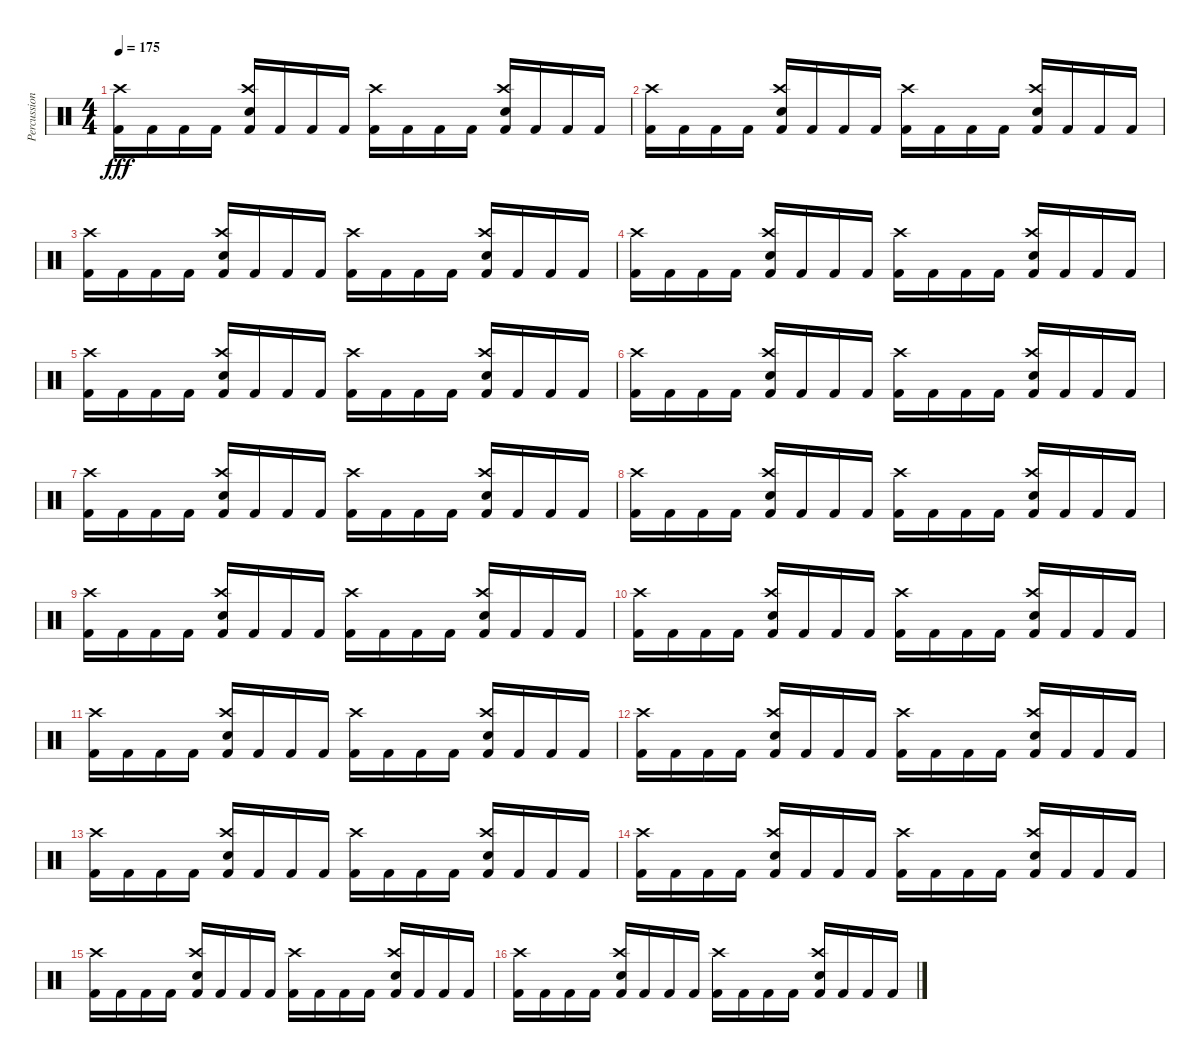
\track ("Percussion" "Percussion") {instrument percussion}
\staff {score}
\articulation defaults
\ts (4 4)
\tempo 175
\clef neutral
\ks c
("Kick (hit) 2" "Crash high (hit)").16{dy fff} "Kick (hit) 2".16 "Kick (hit) 2".16 "Kick (hit) 2".16 ("Kick (hit) 2" "Electric Snare (hit)" "Crash high (hit)").16 "Kick (hit) 2".16 "Kick (hit) 2".16 "Kick (hit) 2".16 ("Kick (hit) 2" "Crash high (hit)").16 "Kick (hit) 2".16 "Kick (hit) 2".16 "Kick (hit) 2".16 ("Kick (hit) 2" "Electric Snare (hit)" "Crash high (hit)").16 "Kick (hit) 2".16 "Kick (hit) 2".16 "Kick (hit) 2".16 |
("Kick (hit) 2" "Crash high (hit)").16 "Kick (hit) 2".16 "Kick (hit) 2".16 "Kick (hit) 2".16 ("Kick (hit) 2" "Electric Snare (hit)" "Crash high (hit)").16 "Kick (hit) 2".16 "Kick (hit) 2".16 "Kick (hit) 2".16 ("Kick (hit) 2" "Crash high (hit)").16 "Kick (hit) 2".16 "Kick (hit) 2".16 "Kick (hit) 2".16 ("Kick (hit) 2" "Electric Snare (hit)" "Crash high (hit)").16 "Kick (hit) 2".16 "Kick (hit) 2".16 "Kick (hit) 2".16 |
("Kick (hit) 2" "Crash high (hit)").16 "Kick (hit) 2".16 "Kick (hit) 2".16 "Kick (hit) 2".16 ("Kick (hit) 2" "Electric Snare (hit)" "Crash high (hit)").16 "Kick (hit) 2".16 "Kick (hit) 2".16 "Kick (hit) 2".16 ("Kick (hit) 2" "Crash high (hit)").16 "Kick (hit) 2".16 "Kick (hit) 2".16 "Kick (hit) 2".16 ("Kick (hit) 2" "Electric Snare (hit)" "Crash high (hit)").16 "Kick (hit) 2".16 "Kick (hit) 2".16 "Kick (hit) 2".16 |
("Kick (hit) 2" "Crash high (hit)").16 "Kick (hit) 2".16 "Kick (hit) 2".16 "Kick (hit) 2".16 ("Kick (hit) 2" "Electric Snare (hit)" "Crash high (hit)").16 "Kick (hit) 2".16 "Kick (hit) 2".16 "Kick (hit) 2".16 ("Kick (hit) 2" "Crash high (hit)").16 "Kick (hit) 2".16 "Kick (hit) 2".16 "Kick (hit) 2".16 ("Kick (hit) 2" "Electric Snare (hit)" "Crash high (hit)").16 "Kick (hit) 2".16 "Kick (hit) 2".16 "Kick (hit) 2".16 |
("Kick (hit) 2" "Crash high (hit)").16 "Kick (hit) 2".16 "Kick (hit) 2".16 "Kick (hit) 2".16 ("Kick (hit) 2" "Electric Snare (hit)" "Crash high (hit)").16 "Kick (hit) 2".16 "Kick (hit) 2".16 "Kick (hit) 2".16 ("Kick (hit) 2" "Crash high (hit)").16 "Kick (hit) 2".16 "Kick (hit) 2".16 "Kick (hit) 2".16 ("Kick (hit) 2" "Electric Snare (hit)" "Crash high (hit)").16 "Kick (hit) 2".16 "Kick (hit) 2".16 "Kick (hit) 2".16 |
("Kick (hit) 2" "Crash high (hit)").16 "Kick (hit) 2".16 "Kick (hit) 2".16 "Kick (hit) 2".16 ("Kick (hit) 2" "Electric Snare (hit)" "Crash high (hit)").16 "Kick (hit) 2".16 "Kick (hit) 2".16 "Kick (hit) 2".16 ("Kick (hit) 2" "Crash high (hit)").16 "Kick (hit) 2".16 "Kick (hit) 2".16 "Kick (hit) 2".16 ("Kick (hit) 2" "Electric Snare (hit)" "Crash high (hit)").16 "Kick (hit) 2".16 "Kick (hit) 2".16 "Kick (hit) 2".16 |
("Kick (hit) 2" "Crash high (hit)").16 "Kick (hit) 2".16 "Kick (hit) 2".16 "Kick (hit) 2".16 ("Kick (hit) 2" "Electric Snare (hit)" "Crash high (hit)").16 "Kick (hit) 2".16 "Kick (hit) 2".16 "Kick (hit) 2".16 ("Kick (hit) 2" "Crash high (hit)").16 "Kick (hit) 2".16 "Kick (hit) 2".16 "Kick (hit) 2".16 ("Kick (hit) 2" "Electric Snare (hit)" "Crash high (hit)").16 "Kick (hit) 2".16 "Kick (hit) 2".16 "Kick (hit) 2".16 |
("Kick (hit) 2" "Crash high (hit)").16 "Kick (hit) 2".16 "Kick (hit) 2".16 "Kick (hit) 2".16 ("Kick (hit) 2" "Electric Snare (hit)" "Crash high (hit)").16 "Kick (hit) 2".16 "Kick (hit) 2".16 "Kick (hit) 2".16 ("Kick (hit) 2" "Crash high (hit)").16 "Kick (hit) 2".16 "Kick (hit) 2".16 "Kick (hit) 2".16 ("Kick (hit) 2" "Electric Snare (hit)" "Crash high (hit)").16 "Kick (hit) 2".16 "Kick (hit) 2".16 "Kick (hit) 2".16 |
("Kick (hit) 2" "Crash high (hit)").16 "Kick (hit) 2".16 "Kick (hit) 2".16 "Kick (hit) 2".16 ("Kick (hit) 2" "Electric Snare (hit)" "Crash high (hit)").16 "Kick (hit) 2".16 "Kick (hit) 2".16 "Kick (hit) 2".16 ("Kick (hit) 2" "Crash high (hit)").16 "Kick (hit) 2".16 "Kick (hit) 2".16 "Kick (hit) 2".16 ("Kick (hit) 2" "Electric Snare (hit)" "Crash high (hit)").16 "Kick (hit) 2".16 "Kick (hit) 2".16 "Kick (hit) 2".16 |
("Kick (hit) 2" "Crash high (hit)").16 "Kick (hit) 2".16 "Kick (hit) 2".16 "Kick (hit) 2".16 ("Kick (hit) 2" "Electric Snare (hit)" "Crash high (hit)").16 "Kick (hit) 2".16 "Kick (hit) 2".16 "Kick (hit) 2".16 ("Kick (hit) 2" "Crash high (hit)").16 "Kick (hit) 2".16 "Kick (hit) 2".16 "Kick (hit) 2".16 ("Kick (hit) 2" "Electric Snare (hit)" "Crash high (hit)").16 "Kick (hit) 2".16 "Kick (hit) 2".16 "Kick (hit) 2".16 |
("Kick (hit) 2" "Crash high (hit)").16 "Kick (hit) 2".16 "Kick (hit) 2".16 "Kick (hit) 2".16 ("Kick (hit) 2" "Electric Snare (hit)" "Crash high (hit)").16 "Kick (hit) 2".16 "Kick (hit) 2".16 "Kick (hit) 2".16 ("Kick (hit) 2" "Crash high (hit)").16 "Kick (hit) 2".16 "Kick (hit) 2".16 "Kick (hit) 2".16 ("Kick (hit) 2" "Electric Snare (hit)" "Crash high (hit)").16 "Kick (hit) 2".16 "Kick (hit) 2".16 "Kick (hit) 2".16 |
("Kick (hit) 2" "Crash high (hit)").16 "Kick (hit) 2".16 "Kick (hit) 2".16 "Kick (hit) 2".16 ("Kick (hit) 2" "Electric Snare (hit)" "Crash high (hit)").16 "Kick (hit) 2".16 "Kick (hit) 2".16 "Kick (hit) 2".16 ("Kick (hit) 2" "Crash high (hit)").16 "Kick (hit) 2".16 "Kick (hit) 2".16 "Kick (hit) 2".16 ("Kick (hit) 2" "Electric Snare (hit)" "Crash high (hit)").16 "Kick (hit) 2".16 "Kick (hit) 2".16 "Kick (hit) 2".16 |
("Kick (hit) 2" "Crash high (hit)").16 "Kick (hit) 2".16 "Kick (hit) 2".16 "Kick (hit) 2".16 ("Kick (hit) 2" "Electric Snare (hit)" "Crash high (hit)").16 "Kick (hit) 2".16 "Kick (hit) 2".16 "Kick (hit) 2".16 ("Kick (hit) 2" "Crash high (hit)").16 "Kick (hit) 2".16 "Kick (hit) 2".16 "Kick (hit) 2".16 ("Kick (hit) 2" "Electric Snare (hit)" "Crash high (hit)").16 "Kick (hit) 2".16 "Kick (hit) 2".16 "Kick (hit) 2".16 |
("Kick (hit) 2" "Crash high (hit)").16 "Kick (hit) 2".16 "Kick (hit) 2".16 "Kick (hit) 2".16 ("Kick (hit) 2" "Electric Snare (hit)" "Crash high (hit)").16 "Kick (hit) 2".16 "Kick (hit) 2".16 "Kick (hit) 2".16 ("Kick (hit) 2" "Crash high (hit)").16 "Kick (hit) 2".16 "Kick (hit) 2".16 "Kick (hit) 2".16 ("Kick (hit) 2" "Electric Snare (hit)" "Crash high (hit)").16 "Kick (hit) 2".16 "Kick (hit) 2".16 "Kick (hit) 2".16 |
("Kick (hit) 2" "Crash high (hit)").16 "Kick (hit) 2".16 "Kick (hit) 2".16 "Kick (hit) 2".16 ("Kick (hit) 2" "Electric Snare (hit)" "Crash high (hit)").16 "Kick (hit) 2".16 "Kick (hit) 2".16 "Kick (hit) 2".16 ("Kick (hit) 2" "Crash high (hit)").16 "Kick (hit) 2".16 "Kick (hit) 2".16 "Kick (hit) 2".16 ("Kick (hit) 2" "Electric Snare (hit)" "Crash high (hit)").16 "Kick (hit) 2".16 "Kick (hit) 2".16 "Kick (hit) 2".16 |
("Kick (hit) 2" "Crash high (hit)").16 "Kick (hit) 2".16 "Kick (hit) 2".16 "Kick (hit) 2".16 ("Kick (hit) 2" "Electric Snare (hit)" "Crash high (hit)").16 "Kick (hit) 2".16 "Kick (hit) 2".16 "Kick (hit) 2".16 ("Kick (hit) 2" "Crash high (hit)").16 "Kick (hit) 2".16 "Kick (hit) 2".16 "Kick (hit) 2".16 ("Kick (hit) 2" "Electric Snare (hit)" "Crash high (hit)").16 "Kick (hit) 2".16 "Kick (hit) 2".16 "Kick (hit) 2".16
